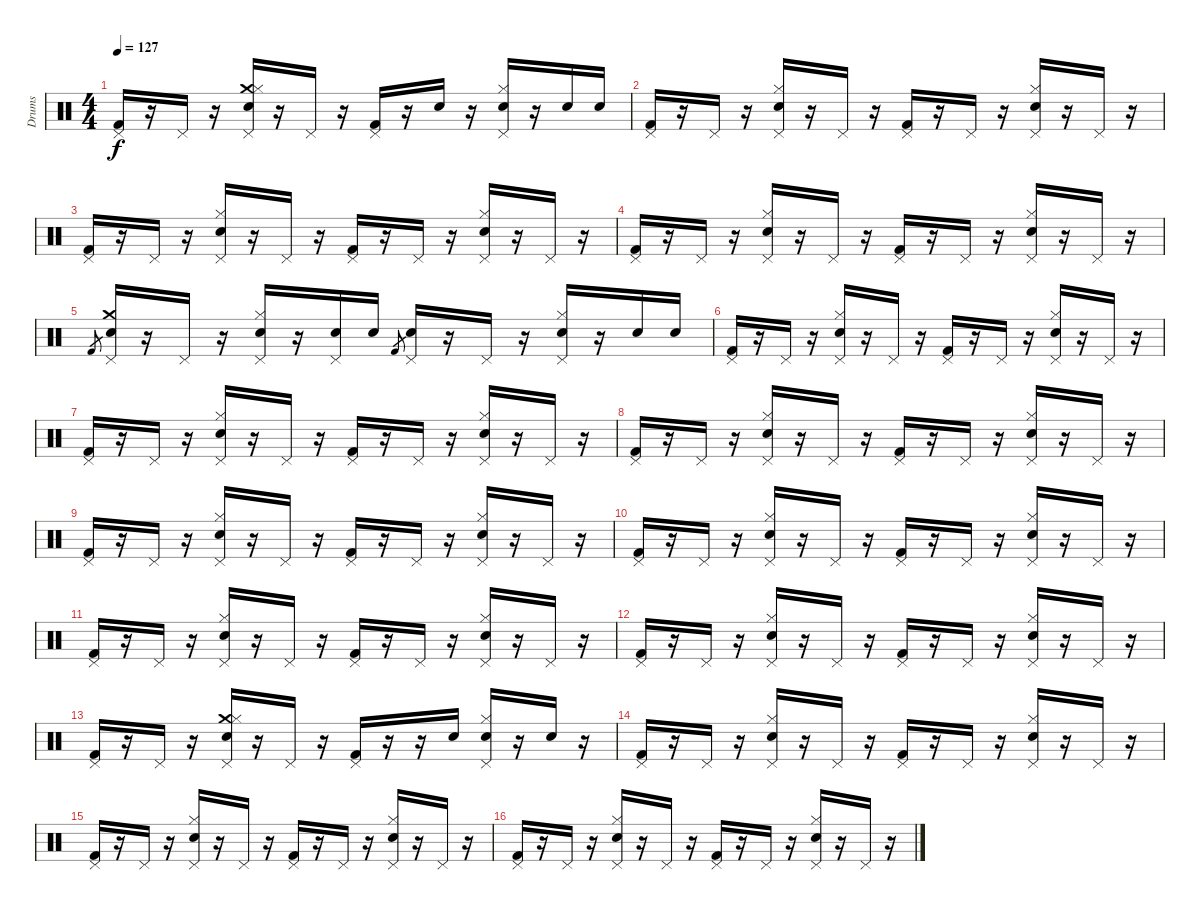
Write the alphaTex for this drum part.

\track ("Drums" "Drums") {instrument percussion}
\staff {score}
\articulation defaults
\ts (4 4)
\tempo 127
\clef neutral
\ks c
("Pedal Hi-Hat (hit)" "Kick (hit) 2").16{dy f} r.16 "Pedal Hi-Hat (hit)".16 r.16 ("Crash medium (hit)" "Hi-Hat (closed)" "Pedal Hi-Hat (hit)" "Electric Snare (hit)").16 r.16 "Pedal Hi-Hat (hit)".16 r.16 ("Pedal Hi-Hat (hit)" "Kick (hit) 2").16 r.16 "Electric Snare (hit)".16 r.16 ("Hi-Hat (closed)" "Pedal Hi-Hat (hit)" "Electric Snare (hit)").16 r.16 "Electric Snare (hit)".16 "Electric Snare (hit)".16 |
("Pedal Hi-Hat (hit)" "Kick (hit) 2").16 r.16 "Pedal Hi-Hat (hit)".16 r.16 ("Hi-Hat (closed)" "Pedal Hi-Hat (hit)" "Electric Snare (hit)").16 r.16 "Pedal Hi-Hat (hit)".16 r.16 ("Pedal Hi-Hat (hit)" "Kick (hit) 2").16 r.16 "Pedal Hi-Hat (hit)".16 r.16 ("Hi-Hat (closed)" "Pedal Hi-Hat (hit)" "Electric Snare (hit)").16 r.16 "Pedal Hi-Hat (hit)".16 r.16 |
("Pedal Hi-Hat (hit)" "Kick (hit) 2").16 r.16 "Pedal Hi-Hat (hit)".16 r.16 ("Hi-Hat (closed)" "Pedal Hi-Hat (hit)" "Electric Snare (hit)").16 r.16 "Pedal Hi-Hat (hit)".16 r.16 ("Pedal Hi-Hat (hit)" "Kick (hit) 2").16 r.16 "Pedal Hi-Hat (hit)".16 r.16 ("Hi-Hat (closed)" "Pedal Hi-Hat (hit)" "Electric Snare (hit)").16 r.16 "Pedal Hi-Hat (hit)".16 r.16 |
("Pedal Hi-Hat (hit)" "Kick (hit) 2").16 r.16 "Pedal Hi-Hat (hit)".16 r.16 ("Hi-Hat (closed)" "Pedal Hi-Hat (hit)" "Electric Snare (hit)").16 r.16 "Pedal Hi-Hat (hit)".16 r.16 ("Pedal Hi-Hat (hit)" "Kick (hit) 2").16 r.16 "Pedal Hi-Hat (hit)".16 r.16 ("Hi-Hat (closed)" "Pedal Hi-Hat (hit)" "Electric Snare (hit)").16 r.16 "Pedal Hi-Hat (hit)".16 r.16 |
"Kick (hit) 2".8{gr} ("Crash medium (hit)" "Pedal Hi-Hat (hit)" "Electric Snare (hit)").16 r.16 "Pedal Hi-Hat (hit)".16 r.16 ("Hi-Hat (closed)" "Pedal Hi-Hat (hit)" "Electric Snare (hit)").16 r.16 ("Pedal Hi-Hat (hit)" "Electric Snare (hit)").16 "Electric Snare (hit)".16 "Kick (hit) 2".8{gr} ("Pedal Hi-Hat (hit)" "Electric Snare (hit)").16 r.16 "Pedal Hi-Hat (hit)".16 r.16 ("Hi-Hat (closed)" "Pedal Hi-Hat (hit)" "Electric Snare (hit)").16 r.16 "Electric Snare (hit)".16 "Electric Snare (hit)".16 |
("Pedal Hi-Hat (hit)" "Kick (hit) 2").16 r.16 "Pedal Hi-Hat (hit)".16 r.16 ("Hi-Hat (closed)" "Pedal Hi-Hat (hit)" "Electric Snare (hit)").16 r.16 "Pedal Hi-Hat (hit)".16 r.16 ("Pedal Hi-Hat (hit)" "Kick (hit) 2").16 r.16 "Pedal Hi-Hat (hit)".16 r.16 ("Hi-Hat (closed)" "Pedal Hi-Hat (hit)" "Electric Snare (hit)").16 r.16 "Pedal Hi-Hat (hit)".16 r.16 |
("Pedal Hi-Hat (hit)" "Kick (hit) 2").16 r.16 "Pedal Hi-Hat (hit)".16 r.16 ("Hi-Hat (closed)" "Pedal Hi-Hat (hit)" "Electric Snare (hit)").16 r.16 "Pedal Hi-Hat (hit)".16 r.16 ("Pedal Hi-Hat (hit)" "Kick (hit) 2").16 r.16 "Pedal Hi-Hat (hit)".16 r.16 ("Hi-Hat (closed)" "Pedal Hi-Hat (hit)" "Electric Snare (hit)").16 r.16 "Pedal Hi-Hat (hit)".16 r.16 |
("Pedal Hi-Hat (hit)" "Kick (hit) 2").16 r.16 "Pedal Hi-Hat (hit)".16 r.16 ("Hi-Hat (closed)" "Pedal Hi-Hat (hit)" "Electric Snare (hit)").16 r.16 "Pedal Hi-Hat (hit)".16 r.16 ("Pedal Hi-Hat (hit)" "Kick (hit) 2").16 r.16 "Pedal Hi-Hat (hit)".16 r.16 ("Hi-Hat (closed)" "Pedal Hi-Hat (hit)" "Electric Snare (hit)").16 r.16 "Pedal Hi-Hat (hit)".16 r.16 |
("Pedal Hi-Hat (hit)" "Kick (hit) 2").16 r.16 "Pedal Hi-Hat (hit)".16 r.16 ("Hi-Hat (closed)" "Pedal Hi-Hat (hit)" "Electric Snare (hit)").16 r.16 "Pedal Hi-Hat (hit)".16 r.16 ("Pedal Hi-Hat (hit)" "Kick (hit) 2").16 r.16 "Pedal Hi-Hat (hit)".16 r.16 ("Hi-Hat (closed)" "Pedal Hi-Hat (hit)" "Electric Snare (hit)").16 r.16 "Pedal Hi-Hat (hit)".16 r.16 |
("Pedal Hi-Hat (hit)" "Kick (hit) 2").16 r.16 "Pedal Hi-Hat (hit)".16 r.16 ("Hi-Hat (closed)" "Pedal Hi-Hat (hit)" "Electric Snare (hit)").16 r.16 "Pedal Hi-Hat (hit)".16 r.16 ("Pedal Hi-Hat (hit)" "Kick (hit) 2").16 r.16 "Pedal Hi-Hat (hit)".16 r.16 ("Hi-Hat (closed)" "Pedal Hi-Hat (hit)" "Electric Snare (hit)").16 r.16 "Pedal Hi-Hat (hit)".16 r.16 |
("Pedal Hi-Hat (hit)" "Kick (hit) 2").16 r.16 "Pedal Hi-Hat (hit)".16 r.16 ("Hi-Hat (closed)" "Pedal Hi-Hat (hit)" "Electric Snare (hit)").16 r.16 "Pedal Hi-Hat (hit)".16 r.16 ("Pedal Hi-Hat (hit)" "Kick (hit) 2").16 r.16 "Pedal Hi-Hat (hit)".16 r.16 ("Hi-Hat (closed)" "Pedal Hi-Hat (hit)" "Electric Snare (hit)").16 r.16 "Pedal Hi-Hat (hit)".16 r.16 |
("Pedal Hi-Hat (hit)" "Kick (hit) 2").16 r.16 "Pedal Hi-Hat (hit)".16 r.16 ("Hi-Hat (closed)" "Pedal Hi-Hat (hit)" "Electric Snare (hit)").16 r.16 "Pedal Hi-Hat (hit)".16 r.16 ("Pedal Hi-Hat (hit)" "Kick (hit) 2").16 r.16 "Pedal Hi-Hat (hit)".16 r.16 ("Hi-Hat (closed)" "Pedal Hi-Hat (hit)" "Electric Snare (hit)").16 r.16 "Pedal Hi-Hat (hit)".16 r.16 |
("Pedal Hi-Hat (hit)" "Kick (hit) 2").16 r.16 "Pedal Hi-Hat (hit)".16 r.16 ("Crash medium (hit)" "Hi-Hat (closed)" "Pedal Hi-Hat (hit)" "Electric Snare (hit)").16 r.16 "Pedal Hi-Hat (hit)".16 r.16 ("Pedal Hi-Hat (hit)" "Kick (hit) 2").16 r.16 r.16 "Electric Snare (hit)".16 ("Hi-Hat (closed)" "Pedal Hi-Hat (hit)" "Electric Snare (hit)").16 r.16 "Electric Snare (hit)".16 r.16 |
("Pedal Hi-Hat (hit)" "Kick (hit) 2").16 r.16 "Pedal Hi-Hat (hit)".16 r.16 ("Hi-Hat (closed)" "Pedal Hi-Hat (hit)" "Electric Snare (hit)").16 r.16 "Pedal Hi-Hat (hit)".16 r.16 ("Pedal Hi-Hat (hit)" "Kick (hit) 2").16 r.16 "Pedal Hi-Hat (hit)".16 r.16 ("Hi-Hat (closed)" "Pedal Hi-Hat (hit)" "Electric Snare (hit)").16 r.16 "Pedal Hi-Hat (hit)".16 r.16 |
("Pedal Hi-Hat (hit)" "Kick (hit) 2").16 r.16 "Pedal Hi-Hat (hit)".16 r.16 ("Hi-Hat (closed)" "Pedal Hi-Hat (hit)" "Electric Snare (hit)").16 r.16 "Pedal Hi-Hat (hit)".16 r.16 ("Pedal Hi-Hat (hit)" "Kick (hit) 2").16 r.16 "Pedal Hi-Hat (hit)".16 r.16 ("Hi-Hat (closed)" "Pedal Hi-Hat (hit)" "Electric Snare (hit)").16 r.16 "Pedal Hi-Hat (hit)".16 r.16 |
("Pedal Hi-Hat (hit)" "Kick (hit) 2").16 r.16 "Pedal Hi-Hat (hit)".16 r.16 ("Hi-Hat (closed)" "Pedal Hi-Hat (hit)" "Electric Snare (hit)").16 r.16 "Pedal Hi-Hat (hit)".16 r.16 ("Pedal Hi-Hat (hit)" "Kick (hit) 2").16 r.16 "Pedal Hi-Hat (hit)".16 r.16 ("Hi-Hat (closed)" "Pedal Hi-Hat (hit)" "Electric Snare (hit)").16 r.16 "Pedal Hi-Hat (hit)".16 r.16
